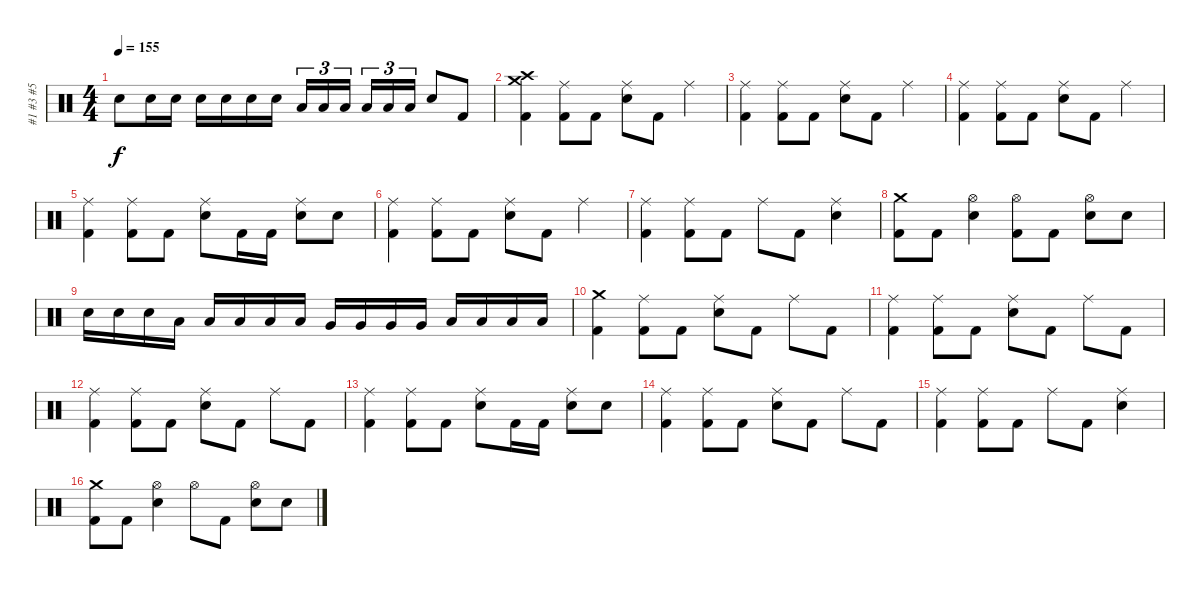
\track ("#1 #3 #5" "#1 #3 #5") {instrument percussion}
\staff {score}
\articulation defaults
\ts (4 4)
\tempo 155
\clef neutral
\ks c "Electric Snare (hit)".8{dy f} "Electric Snare (hit)".16 "Electric Snare (hit)".16 "Electric Snare (hit)".16 "Electric Snare (hit)".16 "Electric Snare (hit)".16 "Electric Snare (hit)".16 "Low Tom (hit)".16{tu (3 2)} "Low Tom (hit)".16{tu (3 2)} "Low Tom (hit)".16{tu (3 2)} "Low Tom (hit)".16{tu (3 2)} "Low Tom (hit)".16{tu (3 2)} "Low Tom (hit)".16{tu (3 2)} "Electric Snare (hit)".8 "Kick (hit) 2".8
|
\section ("" " ")
("Crash medium (hit)" "Crash high (hit)" "Kick (hit) 2").4 ("Ride (middle)" "Kick (hit) 2").8 "Kick (hit) 2".8 ("Ride (middle)" "Electric Snare (hit)").8 "Kick (hit) 2".8 "Ride (middle)".4 |
("Ride (middle)" "Kick (hit) 2").4 ("Ride (middle)" "Kick (hit) 2").8 "Kick (hit) 2".8 ("Ride (middle)" "Electric Snare (hit)").8 "Kick (hit) 2".8 "Ride (middle)".4 |
("Ride (middle)" "Kick (hit) 2").4 ("Ride (middle)" "Kick (hit) 2").8 "Kick (hit) 2".8 ("Ride (middle)" "Electric Snare (hit)").8 "Kick (hit) 2".8 "Ride (middle)".4 |
("Ride (middle)" "Kick (hit) 2").4 ("Ride (middle)" "Kick (hit) 2").8 "Kick (hit) 2".8 ("Ride (middle)" "Electric Snare (hit)").8 "Kick (hit) 2".16 "Kick (hit) 2".16 ("Ride (middle)" "Electric Snare (hit)").8 "Electric Snare (hit)".8 |
("Ride (middle)" "Kick (hit) 2").4 ("Ride (middle)" "Kick (hit) 2").8 "Kick (hit) 2".8 ("Ride (middle)" "Electric Snare (hit)").8 "Kick (hit) 2".8 "Ride (middle)".4 |
("Ride (middle)" "Kick (hit) 2").4 ("Ride (middle)" "Kick (hit) 2").8 "Kick (hit) 2".8 "Ride (middle)".8 "Kick (hit) 2".8 ("Ride (middle)" "Electric Snare (hit)").4 |
("Crash medium (hit)" "Kick (hit) 2").8 "Kick (hit) 2".8 ("Hi-Hat (open)" "Electric Snare (hit)").4 ("Hi-Hat (open)" "Kick (hit) 2").8 "Kick (hit) 2".8 ("Hi-Hat (open)" "Electric Snare (hit)").8 "Electric Snare (hit)".8 |
"Electric Snare (hit)".16 "Electric Snare (hit)".16 "Electric Snare (hit)".16 "Low Tom (hit)".16 "Low Tom (hit)".16 "Low Tom (hit)".16 "Low Tom (hit)".16 "Low Tom (hit)".16 "Very Low Tom (hit)".16 "Very Low Tom (hit)".16 "Very Low Tom (hit)".16 "Very Low Tom (hit)".16 "Low Tom (hit)".16 "Low Tom (hit)".16 "Low Tom (hit)".16 "Low Tom (hit)".16 |
("Crash medium (hit)" "Kick (hit) 2").4 ("Ride (middle)" "Kick (hit) 2").8 "Kick (hit) 2".8 ("Ride (middle)" "Electric Snare (hit)").8 "Kick (hit) 2".8 "Ride (middle)".8 "Kick (hit) 2".8 |
("Ride (middle)" "Kick (hit) 2").4 ("Ride (middle)" "Kick (hit) 2").8 "Kick (hit) 2".8 ("Ride (middle)" "Electric Snare (hit)").8 "Kick (hit) 2".8 "Ride (middle)".8 "Kick (hit) 2".8 |
("Ride (middle)" "Kick (hit) 2").4 ("Ride (middle)" "Kick (hit) 2").8 "Kick (hit) 2".8 ("Ride (middle)" "Electric Snare (hit)").8 "Kick (hit) 2".8 "Ride (middle)".8 "Kick (hit) 2".8 |
("Ride (middle)" "Kick (hit) 2").4 ("Ride (middle)" "Kick (hit) 2").8 "Kick (hit) 2".8 ("Ride (middle)" "Electric Snare (hit)").8 "Kick (hit) 2".16 "Kick (hit) 2".16 ("Ride (middle)" "Electric Snare (hit)").8 "Electric Snare (hit)".8 |
("Ride (middle)" "Kick (hit) 2").4 ("Ride (middle)" "Kick (hit) 2").8 "Kick (hit) 2".8 ("Ride (middle)" "Electric Snare (hit)").8 "Kick (hit) 2".8 "Ride (middle)".8 "Kick (hit) 2".8 |
("Ride (middle)" "Kick (hit) 2").4 ("Ride (middle)" "Kick (hit) 2").8 "Kick (hit) 2".8 "Ride (middle)".8 "Kick (hit) 2".8 ("Ride (middle)" "Electric Snare (hit)").4 |
("Crash medium (hit)" "Kick (hit) 2").8 "Kick (hit) 2".8 ("Hi-Hat (open)" "Electric Snare (hit)").4 "Hi-Hat (open)".8 "Kick (hit) 2".8 ("Hi-Hat (open)" "Electric Snare (hit)").8 "Electric Snare (hit)".8
